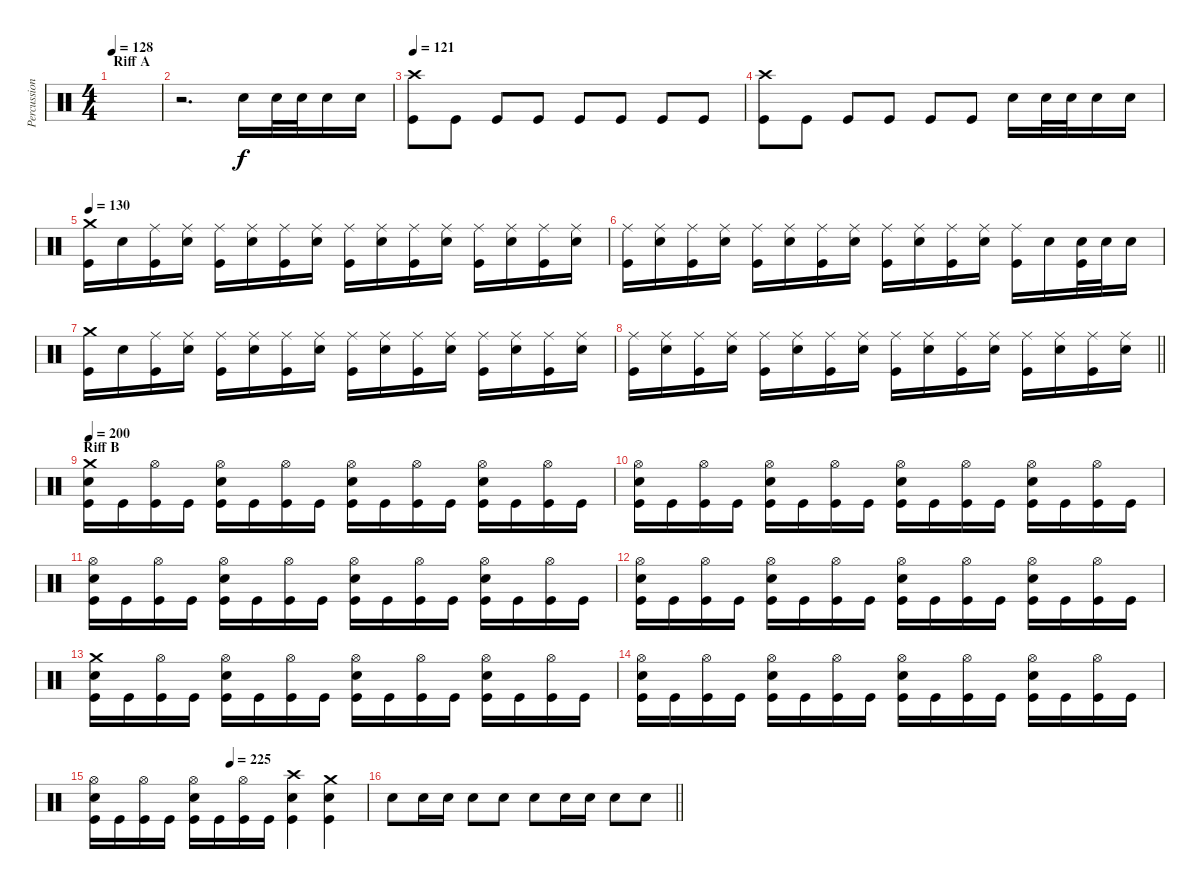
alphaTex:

\track ("Percussion" "Percussion") {instrument percussion}
\staff {score}
\articulation defaults
\ts (4 4)
\section ("" "Riff A")
\tempo 128
\clef neutral
\ks c
|
r.2{d} "Snare (hit) 2".16 "Snare (hit) 2".32 "Snare (hit) 2".32 "Snare (hit) 2".16 "Snare (hit) 2".16 |
\tempo 121
("Kick (hit)" "Crash high (hit)").8 "Kick (hit)".8 "Kick (hit)".8 "Kick (hit)".8 "Kick (hit)".8 "Kick (hit)".8 "Kick (hit)".8 "Kick (hit)".8 |
("Kick (hit)" "Crash high (hit)").8 "Kick (hit)".8 "Kick (hit)".8 "Kick (hit)".8 "Kick (hit)".8 "Kick (hit)".8 "Snare (hit) 2".16 "Snare (hit) 2".32 "Snare (hit) 2".32 "Snare (hit) 2".16 "Snare (hit) 2".16 |
\tempo 130
("Kick (hit)" "Crash medium (hit)").16 "Snare (hit) 2".16 ("Kick (hit)" "Ride (middle)").16 ("Snare (hit) 2" "Ride (middle)").16 ("Kick (hit)" "Ride (middle)").16 ("Snare (hit) 2" "Ride (middle)").16 ("Kick (hit)" "Ride (middle)").16 ("Snare (hit) 2" "Ride (middle)").16 ("Kick (hit)" "Ride (middle)").16 ("Snare (hit) 2" "Ride (middle)").16 ("Kick (hit)" "Ride (middle)").16 ("Snare (hit) 2" "Ride (middle)").16 ("Kick (hit)" "Ride (middle)").16 ("Snare (hit) 2" "Ride (middle)").16 ("Kick (hit)" "Ride (middle)").16 ("Snare (hit) 2" "Ride (middle)").16 |
("Kick (hit)" "Ride (middle)").16 ("Snare (hit) 2" "Ride (middle)").16 ("Kick (hit)" "Ride (middle)").16 ("Snare (hit) 2" "Ride (middle)").16 ("Kick (hit)" "Ride (middle)").16 ("Snare (hit) 2" "Ride (middle)").16 ("Kick (hit)" "Ride (middle)").16 ("Snare (hit) 2" "Ride (middle)").16 ("Kick (hit)" "Ride (middle)").16 ("Snare (hit) 2" "Ride (middle)").16 ("Kick (hit)" "Ride (middle)").16 ("Snare (hit) 2" "Ride (middle)").16 ("Kick (hit)" "Ride (middle)").16 "Snare (hit) 2".16 ("Kick (hit)" "Snare (hit) 2").32 "Snare (hit) 2".32 "Snare (hit) 2".16 |
("Kick (hit)" "Crash medium (hit)").16 "Snare (hit) 2".16 ("Kick (hit)" "Ride (middle)").16 ("Snare (hit) 2" "Ride (middle)").16 ("Kick (hit)" "Ride (middle)").16 ("Snare (hit) 2" "Ride (middle)").16 ("Kick (hit)" "Ride (middle)").16 ("Snare (hit) 2" "Ride (middle)").16 ("Kick (hit)" "Ride (middle)").16 ("Snare (hit) 2" "Ride (middle)").16 ("Kick (hit)" "Ride (middle)").16 ("Snare (hit) 2" "Ride (middle)").16 ("Kick (hit)" "Ride (middle)").16 ("Snare (hit) 2" "Ride (middle)").16 ("Kick (hit)" "Ride (middle)").16 ("Snare (hit) 2" "Ride (middle)").16 |
\barLineRight lightlight
("Kick (hit)" "Ride (middle)").16 ("Snare (hit) 2" "Ride (middle)").16 ("Kick (hit)" "Ride (middle)").16 ("Snare (hit) 2" "Ride (middle)").16 ("Kick (hit)" "Ride (middle)").16 ("Snare (hit) 2" "Ride (middle)").16 ("Kick (hit)" "Ride (middle)").16 ("Snare (hit) 2" "Ride (middle)").16 ("Kick (hit)" "Ride (middle)").16 ("Snare (hit) 2" "Ride (middle)").16 ("Kick (hit)" "Ride (middle)").16 ("Snare (hit) 2" "Ride (middle)").16 ("Kick (hit)" "Ride (middle)").16 ("Snare (hit) 2" "Ride (middle)").16 ("Kick (hit)" "Ride (middle)").16 ("Snare (hit) 2" "Ride (middle)").16 |
\section ("" "Riff B")
\tempo 200
("Kick (hit)" "Snare (hit) 2" "Crash medium (hit)").16 "Kick (hit)".16 ("Kick (hit)" "Hi-Hat (open)").16 "Kick (hit)".16 ("Kick (hit)" "Snare (hit) 2" "Hi-Hat (open)").16 "Kick (hit)".16 ("Kick (hit)" "Hi-Hat (open)").16 "Kick (hit)".16 ("Kick (hit)" "Snare (hit) 2" "Hi-Hat (open)").16 "Kick (hit)".16 ("Kick (hit)" "Hi-Hat (open)").16 "Kick (hit)".16 ("Kick (hit)" "Snare (hit) 2" "Hi-Hat (open)").16 "Kick (hit)".16 ("Kick (hit)" "Hi-Hat (open)").16 "Kick (hit)".16 |
("Kick (hit)" "Snare (hit) 2" "Hi-Hat (open)").16 "Kick (hit)".16 ("Kick (hit)" "Hi-Hat (open)").16 "Kick (hit)".16 ("Kick (hit)" "Snare (hit) 2" "Hi-Hat (open)").16 "Kick (hit)".16 ("Kick (hit)" "Hi-Hat (open)").16 "Kick (hit)".16 ("Kick (hit)" "Snare (hit) 2" "Hi-Hat (open)").16 "Kick (hit)".16 ("Kick (hit)" "Hi-Hat (open)").16 "Kick (hit)".16 ("Kick (hit)" "Snare (hit) 2" "Hi-Hat (open)").16 "Kick (hit)".16 ("Kick (hit)" "Hi-Hat (open)").16 "Kick (hit)".16 |
("Kick (hit)" "Snare (hit) 2" "Hi-Hat (open)").16 "Kick (hit)".16 ("Kick (hit)" "Hi-Hat (open)").16 "Kick (hit)".16 ("Kick (hit)" "Snare (hit) 2" "Hi-Hat (open)").16 "Kick (hit)".16 ("Kick (hit)" "Hi-Hat (open)").16 "Kick (hit)".16 ("Kick (hit)" "Snare (hit) 2" "Hi-Hat (open)").16 "Kick (hit)".16 ("Kick (hit)" "Hi-Hat (open)").16 "Kick (hit)".16 ("Kick (hit)" "Snare (hit) 2" "Hi-Hat (open)").16 "Kick (hit)".16 ("Kick (hit)" "Hi-Hat (open)").16 "Kick (hit)".16 |
("Kick (hit)" "Snare (hit) 2" "Hi-Hat (open)").16 "Kick (hit)".16 ("Kick (hit)" "Hi-Hat (open)").16 "Kick (hit)".16 ("Kick (hit)" "Snare (hit) 2" "Hi-Hat (open)").16 "Kick (hit)".16 ("Kick (hit)" "Hi-Hat (open)").16 "Kick (hit)".16 ("Kick (hit)" "Snare (hit) 2" "Hi-Hat (open)").16 "Kick (hit)".16 ("Kick (hit)" "Hi-Hat (open)").16 "Kick (hit)".16 ("Kick (hit)" "Snare (hit) 2" "Hi-Hat (open)").16 "Kick (hit)".16 ("Kick (hit)" "Hi-Hat (open)").16 "Kick (hit)".16 |
("Kick (hit)" "Snare (hit) 2" "Crash medium (hit)").16 "Kick (hit)".16 ("Kick (hit)" "Hi-Hat (open)").16 "Kick (hit)".16 ("Kick (hit)" "Snare (hit) 2" "Hi-Hat (open)").16 "Kick (hit)".16 ("Kick (hit)" "Hi-Hat (open)").16 "Kick (hit)".16 ("Kick (hit)" "Snare (hit) 2" "Hi-Hat (open)").16 "Kick (hit)".16 ("Kick (hit)" "Hi-Hat (open)").16 "Kick (hit)".16 ("Kick (hit)" "Snare (hit) 2" "Hi-Hat (open)").16 "Kick (hit)".16 ("Kick (hit)" "Hi-Hat (open)").16 "Kick (hit)".16 |
("Kick (hit)" "Snare (hit) 2" "Hi-Hat (open)").16 "Kick (hit)".16 ("Kick (hit)" "Hi-Hat (open)").16 "Kick (hit)".16 ("Kick (hit)" "Snare (hit) 2" "Hi-Hat (open)").16 "Kick (hit)".16 ("Kick (hit)" "Hi-Hat (open)").16 "Kick (hit)".16 ("Kick (hit)" "Snare (hit) 2" "Hi-Hat (open)").16 "Kick (hit)".16 ("Kick (hit)" "Hi-Hat (open)").16 "Kick (hit)".16 ("Kick (hit)" "Snare (hit) 2" "Hi-Hat (open)").16 "Kick (hit)".16 ("Kick (hit)" "Hi-Hat (open)").16 "Kick (hit)".16 |
\tempo (225 0.5)
("Kick (hit)" "Snare (hit) 2" "Hi-Hat (open)").16 "Kick (hit)".16 ("Kick (hit)" "Hi-Hat (open)").16 "Kick (hit)".16 ("Kick (hit)" "Snare (hit) 2" "Hi-Hat (open)").16 "Kick (hit)".16 ("Kick (hit)" "Hi-Hat (open)").16 "Kick (hit)".16 ("Kick (hit)" "Snare (hit) 2" "Crash high (hit)").4 ("Kick (hit)" "Snare (hit) 2" "Crash medium (hit)").4 |
\barLineRight lightlight "Snare (hit) 2".8 "Snare (hit) 2".16 "Snare (hit) 2".16 "Snare (hit) 2".8 "Snare (hit) 2".8 "Snare (hit) 2".8 "Snare (hit) 2".16 "Snare (hit) 2".16 "Snare (hit) 2".8 "Snare (hit) 2".8
